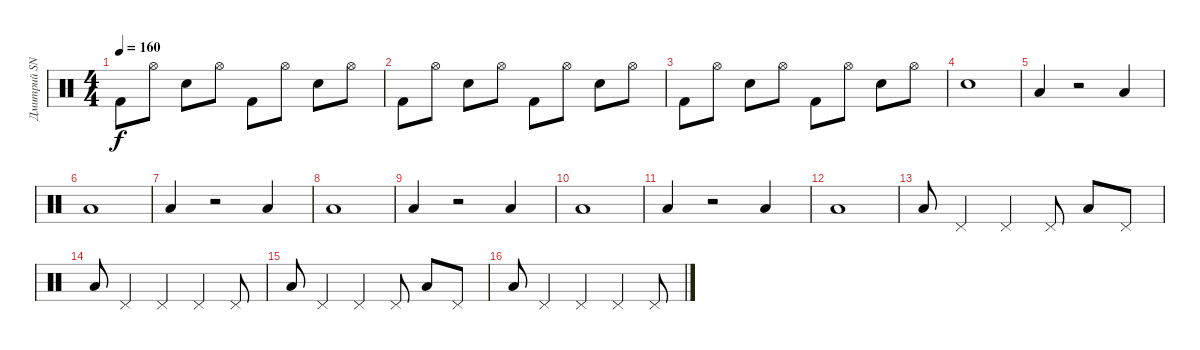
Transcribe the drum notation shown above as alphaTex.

\track ("Дмитрий SNAKE Хакимов" "Дмитрий SN") {instrument percussion}
\staff {score}
\articulation defaults
\ts (4 4)
\tempo 160
\clef neutral
\ks c "Kick (hit) 2".8{dy f} "Hi-Hat (open)".8 "Electric Snare (hit)".8 "Hi-Hat (open)".8 "Kick (hit) 2".8 "Hi-Hat (open)".8 "Electric Snare (hit)".8 "Hi-Hat (open)".8
|
"Kick (hit) 2".8 "Hi-Hat (open)".8 "Electric Snare (hit)".8 "Hi-Hat (open)".8 "Kick (hit) 2".8 "Hi-Hat (open)".8 "Electric Snare (hit)".8 "Hi-Hat (open)".8 |
"Kick (hit) 2".8 "Hi-Hat (open)".8 "Electric Snare (hit)".8 "Hi-Hat (open)".8 "Kick (hit) 2".8 "Hi-Hat (open)".8 "Electric Snare (hit)".8 "Hi-Hat (open)".8 |
"Electric Snare (hit)".1 |
"Low Tom (hit)".4 r.2 "Low Tom (hit)".4 |
"Low Tom (hit)".1 |
"Low Tom (hit)".4 r.2 "Low Tom (hit)".4 |
"Low Tom (hit)".1 |
"Low Tom (hit)".4 r.2 "Low Tom (hit)".4 |
"Low Tom (hit)".1 |
"Low Tom (hit)".4 r.2 "Low Tom (hit)".4 |
"Low Tom (hit)".1 |
"Low Tom (hit)".8 "Pedal Hi-Hat (hit)".4 "Pedal Hi-Hat (hit)".4 "Pedal Hi-Hat (hit)".8 "Low Tom (hit)".8 "Pedal Hi-Hat (hit)".8 |
"Low Tom (hit)".8 "Pedal Hi-Hat (hit)".4 "Pedal Hi-Hat (hit)".4 "Pedal Hi-Hat (hit)".4 "Pedal Hi-Hat (hit)".8 |
"Low Tom (hit)".8 "Pedal Hi-Hat (hit)".4 "Pedal Hi-Hat (hit)".4 "Pedal Hi-Hat (hit)".8 "Low Tom (hit)".8 "Pedal Hi-Hat (hit)".8 |
"Low Tom (hit)".8 "Pedal Hi-Hat (hit)".4 "Pedal Hi-Hat (hit)".4 "Pedal Hi-Hat (hit)".4 "Pedal Hi-Hat (hit)".8
